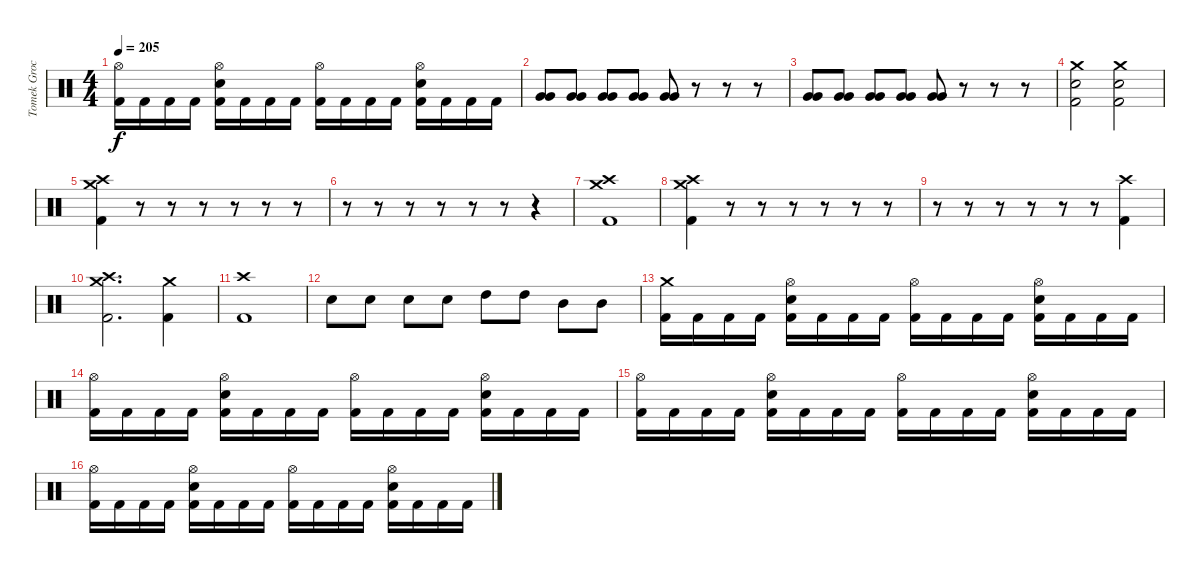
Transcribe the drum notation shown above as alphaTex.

\track ("Tomek Grochowski" "Tomek Groc") {instrument percussion}
\staff {score}
\articulation defaults
\ts (4 4)
\tempo 205
\clef neutral
\ks c
("Hi-Hat (open)" "Kick (hit) 2").16{dy f} "Kick (hit) 2".16 "Kick (hit) 2".16 "Kick (hit) 2".16 ("Hi-Hat (open)" "Electric Snare (hit)" "Kick (hit) 2").16 "Kick (hit) 2".16 "Kick (hit) 2".16 "Kick (hit) 2".16 ("Hi-Hat (open)" "Kick (hit) 2").16 "Kick (hit) 2".16 "Kick (hit) 2".16 "Kick (hit) 2".16 ("Hi-Hat (open)" "Electric Snare (hit)" "Kick (hit) 2").16 "Kick (hit) 2".16 "Kick (hit) 2".16 "Kick (hit) 2".16 |
("Very Low Tom (hit)" "Very Low Tom (hit)").8 ("Very Low Tom (hit)" "Very Low Tom (hit)").8 ("Very Low Tom (hit)" "Very Low Tom (hit)").8 ("Very Low Tom (hit)" "Very Low Tom (hit)").8 ("Very Low Tom (hit)" "Very Low Tom (hit)").8 r.8 r.8 r.8 |
("Very Low Tom (hit)" "Very Low Tom (hit)").8 ("Very Low Tom (hit)" "Very Low Tom (hit)").8 ("Very Low Tom (hit)" "Very Low Tom (hit)").8 ("Very Low Tom (hit)" "Very Low Tom (hit)").8 ("Very Low Tom (hit)" "Very Low Tom (hit)").8 r.8 r.8 r.8 |
("Crash medium (hit)" "Electric Snare (hit)" "Kick (hit) 2").2 ("Crash medium (hit)" "Electric Snare (hit)" "Kick (hit) 2").2 |
("Crash medium (hit)" "Crash high (hit)" "Kick (hit) 2").4 r.8 r.8 r.8 r.8 r.8 r.8 |
r.8 r.8 r.8 r.8 r.8 r.8 r.4 |
("Crash high (hit)" "Crash medium (hit)" "Kick (hit) 2").1 |
("Crash medium (hit)" "Crash high (hit)" "Kick (hit) 2").4 r.8 r.8 r.8 r.8 r.8 r.8 |
r.8 r.8 r.8 r.8 r.8 r.8 ("Crash high (hit)" "Kick (hit) 2").4 |
("Crash high (hit)" "Crash medium (hit)" "Kick (hit) 2").2{d} ("Crash medium (hit)" "Kick (hit) 2").4 |
("Crash high (hit)" "Kick (hit) 2").1 |
"Electric Snare (hit)".8 "Electric Snare (hit)".8 "Electric Snare (hit)".8 "Electric Snare (hit)".8 "High Tom (hit)".8 "High Tom (hit)".8 "Mid Tom (hit)".8 "Mid Tom (hit)".8 |
("Crash medium (hit)" "Kick (hit) 2").16 "Kick (hit) 2".16 "Kick (hit) 2".16 "Kick (hit) 2".16 ("Hi-Hat (open)" "Electric Snare (hit)" "Kick (hit) 2").16 "Kick (hit) 2".16 "Kick (hit) 2".16 "Kick (hit) 2".16 ("Hi-Hat (open)" "Kick (hit) 2").16 "Kick (hit) 2".16 "Kick (hit) 2".16 "Kick (hit) 2".16 ("Hi-Hat (open)" "Electric Snare (hit)" "Kick (hit) 2").16 "Kick (hit) 2".16 "Kick (hit) 2".16 "Kick (hit) 2".16 |
("Hi-Hat (open)" "Kick (hit) 2").16 "Kick (hit) 2".16 "Kick (hit) 2".16 "Kick (hit) 2".16 ("Hi-Hat (open)" "Electric Snare (hit)" "Kick (hit) 2").16 "Kick (hit) 2".16 "Kick (hit) 2".16 "Kick (hit) 2".16 ("Hi-Hat (open)" "Kick (hit) 2").16 "Kick (hit) 2".16 "Kick (hit) 2".16 "Kick (hit) 2".16 ("Hi-Hat (open)" "Electric Snare (hit)" "Kick (hit) 2").16 "Kick (hit) 2".16 "Kick (hit) 2".16 "Kick (hit) 2".16 |
("Hi-Hat (open)" "Kick (hit) 2").16 "Kick (hit) 2".16 "Kick (hit) 2".16 "Kick (hit) 2".16 ("Hi-Hat (open)" "Electric Snare (hit)" "Kick (hit) 2").16 "Kick (hit) 2".16 "Kick (hit) 2".16 "Kick (hit) 2".16 ("Hi-Hat (open)" "Kick (hit) 2").16 "Kick (hit) 2".16 "Kick (hit) 2".16 "Kick (hit) 2".16 ("Hi-Hat (open)" "Electric Snare (hit)" "Kick (hit) 2").16 "Kick (hit) 2".16 "Kick (hit) 2".16 "Kick (hit) 2".16 |
("Hi-Hat (open)" "Kick (hit) 2").16 "Kick (hit) 2".16 "Kick (hit) 2".16 "Kick (hit) 2".16 ("Hi-Hat (open)" "Electric Snare (hit)" "Kick (hit) 2").16 "Kick (hit) 2".16 "Kick (hit) 2".16 "Kick (hit) 2".16 ("Hi-Hat (open)" "Kick (hit) 2").16 "Kick (hit) 2".16 "Kick (hit) 2".16 "Kick (hit) 2".16 ("Hi-Hat (open)" "Electric Snare (hit)" "Kick (hit) 2").16 "Kick (hit) 2".16 "Kick (hit) 2".16 "Kick (hit) 2".16
